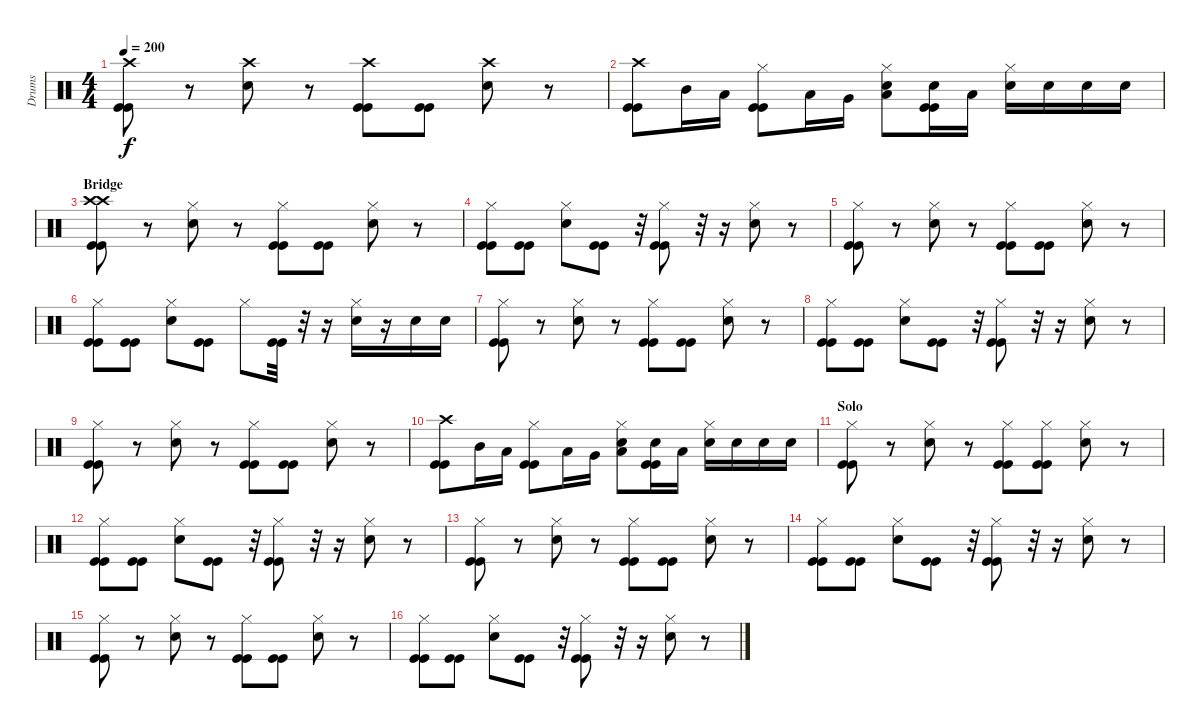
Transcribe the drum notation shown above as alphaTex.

\track ("Drums" "Drums") {instrument percussion}
\staff {score}
\articulation defaults
\ts (4 4)
\tempo 200
\clef neutral
\ks c
("Crash high (hit)" "Kick (hit)" "Kick (hit)").8{dy f} r.8 ("Crash high (hit)" "Electric Snare (hit)").8 r.8 ("Crash high (hit)" "Kick (hit)" "Kick (hit)").8 ("Kick (hit)" "Kick (hit)").8 ("Crash high (hit)" "Electric Snare (hit)").8 r.8 |
("Crash high (hit)" "Kick (hit)" "Kick (hit)").8 "Mid Tom (hit)".16 "Low Tom (hit)".16 ("Hi-Hat (closed)" "Kick (hit)" "Kick (hit)").8 "Low Tom (hit)".16 "Very Low Tom (hit)".16 ("Hi-Hat (closed)" "Low Tom (hit)" "Electric Snare (hit)").8 ("Electric Snare (hit)" "Kick (hit)" "Kick (hit)").16 "Low Tom (hit)".16 ("Hi-Hat (closed)" "Electric Snare (hit)").16 "Electric Snare (hit)".16 "Electric Snare (hit)".16 "Electric Snare (hit)".16 |
\section ("" "Bridge")
("Crash high (hit)" "Crash high (hit)" "Kick (hit)" "Kick (hit)").8 r.8 ("Hi-Hat (closed)" "Electric Snare (hit)").8 r.8 ("Hi-Hat (closed)" "Kick (hit)" "Kick (hit)").8 ("Kick (hit)" "Kick (hit)").8 ("Hi-Hat (closed)" "Electric Snare (hit)").8 r.8 |
("Hi-Hat (closed)" "Kick (hit)" "Kick (hit)").8 ("Kick (hit)" "Kick (hit)").8 ("Hi-Hat (closed)" "Electric Snare (hit)").8 ("Kick (hit)" "Kick (hit)").8 r.32 ("Hi-Hat (closed)" "Kick (hit)" "Kick (hit)").8 r.32 r.16 ("Hi-Hat (closed)" "Electric Snare (hit)").8 r.8 |
("Hi-Hat (closed)" "Kick (hit)" "Kick (hit)").8 r.8 ("Hi-Hat (closed)" "Electric Snare (hit)").8 r.8 ("Hi-Hat (closed)" "Kick (hit)" "Kick (hit)").8 ("Kick (hit)" "Kick (hit)").8 ("Hi-Hat (closed)" "Electric Snare (hit)").8 r.8 |
("Hi-Hat (closed)" "Kick (hit)" "Kick (hit)").8 ("Kick (hit)" "Kick (hit)").8 ("Hi-Hat (closed)" "Electric Snare (hit)").8 ("Kick (hit)" "Kick (hit)").8 "Hi-Hat (closed)".8 ("Kick (hit)" "Kick (hit)").32 r.32 r.16 ("Hi-Hat (closed)" "Electric Snare (hit)").16 r.16 "Electric Snare (hit)".16 "Electric Snare (hit)".16 |
("Hi-Hat (closed)" "Kick (hit)" "Kick (hit)").8 r.8 ("Hi-Hat (closed)" "Electric Snare (hit)").8 r.8 ("Hi-Hat (closed)" "Kick (hit)" "Kick (hit)").8 ("Kick (hit)" "Kick (hit)").8 ("Hi-Hat (closed)" "Electric Snare (hit)").8 r.8 |
("Hi-Hat (closed)" "Kick (hit)" "Kick (hit)").8 ("Kick (hit)" "Kick (hit)").8 ("Hi-Hat (closed)" "Electric Snare (hit)").8 ("Kick (hit)" "Kick (hit)").8 r.32 ("Hi-Hat (closed)" "Kick (hit)" "Kick (hit)").8 r.32 r.16 ("Hi-Hat (closed)" "Electric Snare (hit)").8 r.8 |
("Hi-Hat (closed)" "Kick (hit)" "Kick (hit)").8 r.8 ("Hi-Hat (closed)" "Electric Snare (hit)").8 r.8 ("Hi-Hat (closed)" "Kick (hit)" "Kick (hit)").8 ("Kick (hit)" "Kick (hit)").8 ("Hi-Hat (closed)" "Electric Snare (hit)").8 r.8 |
("Crash high (hit)" "Kick (hit)" "Kick (hit)").8 "Mid Tom (hit)".16 "Low Tom (hit)".16 ("Hi-Hat (closed)" "Kick (hit)" "Kick (hit)").8 "Low Tom (hit)".16 "Very Low Tom (hit)".16 ("Hi-Hat (closed)" "Low Tom (hit)" "Electric Snare (hit)").8 ("Electric Snare (hit)" "Kick (hit)" "Kick (hit)").16 "Low Tom (hit)".16 ("Hi-Hat (closed)" "Electric Snare (hit)").16 "Electric Snare (hit)".16 "Electric Snare (hit)".16 "Electric Snare (hit)".16 |
\section ("" "Solo")
("Hi-Hat (closed)" "Kick (hit)" "Kick (hit)").8 r.8 ("Hi-Hat (closed)" "Electric Snare (hit)").8 r.8 ("Hi-Hat (closed)" "Kick (hit)" "Kick (hit)").8 ("Hi-Hat (closed)" "Kick (hit)" "Kick (hit)").8 ("Hi-Hat (closed)" "Electric Snare (hit)").8 r.8 |
("Hi-Hat (closed)" "Kick (hit)" "Kick (hit)").8 ("Kick (hit)" "Kick (hit)").8 ("Hi-Hat (closed)" "Electric Snare (hit)").8 ("Kick (hit)" "Kick (hit)").8 r.32 ("Hi-Hat (closed)" "Kick (hit)" "Kick (hit)").8 r.32 r.16 ("Hi-Hat (closed)" "Electric Snare (hit)").8 r.8 |
("Hi-Hat (closed)" "Kick (hit)" "Kick (hit)").8 r.8 ("Hi-Hat (closed)" "Electric Snare (hit)").8 r.8 ("Hi-Hat (closed)" "Kick (hit)" "Kick (hit)").8 ("Kick (hit)" "Kick (hit)").8 ("Hi-Hat (closed)" "Electric Snare (hit)").8 r.8 |
("Hi-Hat (closed)" "Kick (hit)" "Kick (hit)").8 ("Kick (hit)" "Kick (hit)").8 ("Hi-Hat (closed)" "Electric Snare (hit)").8 ("Kick (hit)" "Kick (hit)").8 r.32 ("Hi-Hat (closed)" "Kick (hit)" "Kick (hit)").8 r.32 r.16 ("Hi-Hat (closed)" "Electric Snare (hit)").8 r.8 |
("Hi-Hat (closed)" "Kick (hit)" "Kick (hit)").8 r.8 ("Hi-Hat (closed)" "Electric Snare (hit)").8 r.8 ("Hi-Hat (closed)" "Kick (hit)" "Kick (hit)").8 ("Kick (hit)" "Kick (hit)").8 ("Hi-Hat (closed)" "Electric Snare (hit)").8 r.8 |
("Hi-Hat (closed)" "Kick (hit)" "Kick (hit)").8 ("Kick (hit)" "Kick (hit)").8 ("Hi-Hat (closed)" "Electric Snare (hit)").8 ("Kick (hit)" "Kick (hit)").8 r.32 ("Hi-Hat (closed)" "Kick (hit)" "Kick (hit)").8 r.32 r.16 ("Hi-Hat (closed)" "Electric Snare (hit)").8 r.8
